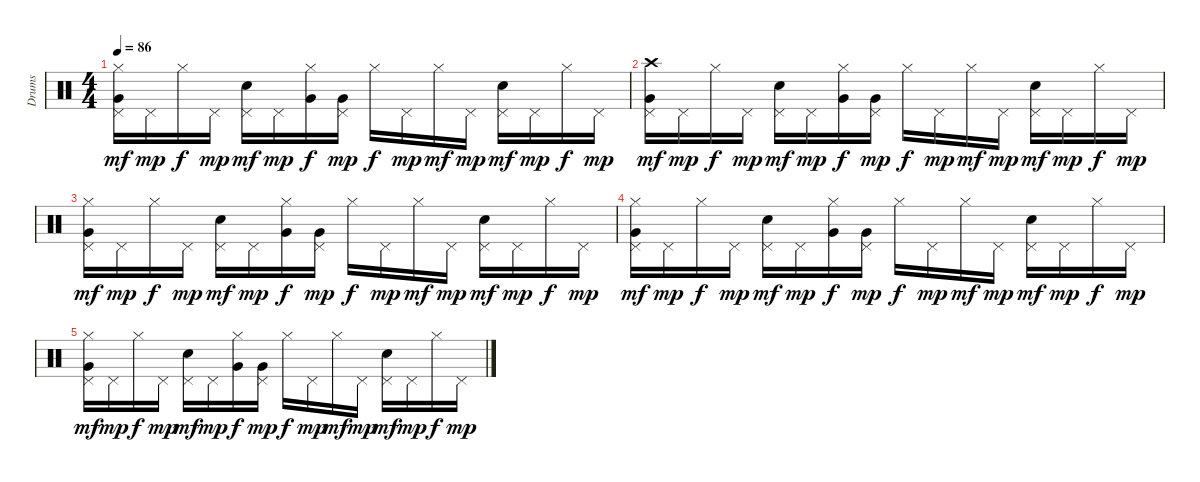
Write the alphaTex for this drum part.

\track ("Drums" "Drums") {instrument percussion}
\staff {score}
\articulation defaults
\ts (4 4)
\tempo 86
\clef neutral
\ks c
("Hi-Hat (closed)" "Very Low Tom (hit)" "Pedal Hi-Hat (hit)").16{dy mf} "Pedal Hi-Hat (hit)".16{dy mp} "Hi-Hat (closed)".16{dy f} "Pedal Hi-Hat (hit)".16{dy mp} ("Electric Snare (hit)" "Pedal Hi-Hat (hit)").16{dy mf} "Pedal Hi-Hat (hit)".16{dy mp} ("Hi-Hat (closed)" "Very Low Tom (hit)").16{dy f} ("Very Low Tom (hit)" "Pedal Hi-Hat (hit)").16{dy mp} "Hi-Hat (closed)".16{dy f} "Pedal Hi-Hat (hit)".16{dy mp} "Hi-Hat (closed)".16{dy mf} "Pedal Hi-Hat (hit)".16{dy mp} ("Electric Snare (hit)" "Pedal Hi-Hat (hit)").16{dy mf} "Pedal Hi-Hat (hit)".16{dy mp} "Hi-Hat (closed)".16{dy f} "Pedal Hi-Hat (hit)".16{dy mp} |
("Crash high (hit)" "Very Low Tom (hit)" "Pedal Hi-Hat (hit)").16{dy mf} "Pedal Hi-Hat (hit)".16{dy mp} "Hi-Hat (closed)".16{dy f} "Pedal Hi-Hat (hit)".16{dy mp} ("Electric Snare (hit)" "Pedal Hi-Hat (hit)").16{dy mf} "Pedal Hi-Hat (hit)".16{dy mp} ("Hi-Hat (closed)" "Very Low Tom (hit)").16{dy f} ("Very Low Tom (hit)" "Pedal Hi-Hat (hit)").16{dy mp} "Hi-Hat (closed)".16{dy f} "Pedal Hi-Hat (hit)".16{dy mp} "Hi-Hat (closed)".16{dy mf} "Pedal Hi-Hat (hit)".16{dy mp} ("Electric Snare (hit)" "Pedal Hi-Hat (hit)").16{dy mf} "Pedal Hi-Hat (hit)".16{dy mp} "Hi-Hat (closed)".16{dy f} "Pedal Hi-Hat (hit)".16{dy mp} |
("Hi-Hat (closed)" "Very Low Tom (hit)" "Pedal Hi-Hat (hit)").16{dy mf} "Pedal Hi-Hat (hit)".16{dy mp} "Hi-Hat (closed)".16{dy f} "Pedal Hi-Hat (hit)".16{dy mp} ("Electric Snare (hit)" "Pedal Hi-Hat (hit)").16{dy mf} "Pedal Hi-Hat (hit)".16{dy mp} ("Hi-Hat (closed)" "Very Low Tom (hit)").16{dy f} ("Very Low Tom (hit)" "Pedal Hi-Hat (hit)").16{dy mp} "Hi-Hat (closed)".16{dy f} "Pedal Hi-Hat (hit)".16{dy mp} "Hi-Hat (closed)".16{dy mf} "Pedal Hi-Hat (hit)".16{dy mp} ("Electric Snare (hit)" "Pedal Hi-Hat (hit)").16{dy mf} "Pedal Hi-Hat (hit)".16{dy mp} "Hi-Hat (closed)".16{dy f} "Pedal Hi-Hat (hit)".16{dy mp} |
("Hi-Hat (closed)" "Very Low Tom (hit)" "Pedal Hi-Hat (hit)").16{dy mf volume 0} "Pedal Hi-Hat (hit)".16{dy mp} "Hi-Hat (closed)".16{dy f} "Pedal Hi-Hat (hit)".16{dy mp} ("Electric Snare (hit)" "Pedal Hi-Hat (hit)").16{dy mf} "Pedal Hi-Hat (hit)".16{dy mp} ("Hi-Hat (closed)" "Very Low Tom (hit)").16{dy f} ("Very Low Tom (hit)" "Pedal Hi-Hat (hit)").16{dy mp} "Hi-Hat (closed)".16{dy f} "Pedal Hi-Hat (hit)".16{dy mp} "Hi-Hat (closed)".16{dy mf} "Pedal Hi-Hat (hit)".16{dy mp} ("Electric Snare (hit)" "Pedal Hi-Hat (hit)").16{dy mf} "Pedal Hi-Hat (hit)".16{dy mp} "Hi-Hat (closed)".16{dy f} "Pedal Hi-Hat (hit)".16{dy mp} |
("Hi-Hat (closed)" "Very Low Tom (hit)" "Pedal Hi-Hat (hit)").16{dy mf} "Pedal Hi-Hat (hit)".16{dy mp} "Hi-Hat (closed)".16{dy f} "Pedal Hi-Hat (hit)".16{dy mp} ("Electric Snare (hit)" "Pedal Hi-Hat (hit)").16{dy mf} "Pedal Hi-Hat (hit)".16{dy mp} ("Hi-Hat (closed)" "Very Low Tom (hit)").16{dy f} ("Very Low Tom (hit)" "Pedal Hi-Hat (hit)").16{dy mp} "Hi-Hat (closed)".16{dy f} "Pedal Hi-Hat (hit)".16{dy mp} "Hi-Hat (closed)".16{dy mf} "Pedal Hi-Hat (hit)".16{dy mp} ("Electric Snare (hit)" "Pedal Hi-Hat (hit)").16{dy mf} "Pedal Hi-Hat (hit)".16{dy mp} "Hi-Hat (closed)".16{dy f} "Pedal Hi-Hat (hit)".16{dy mp}
